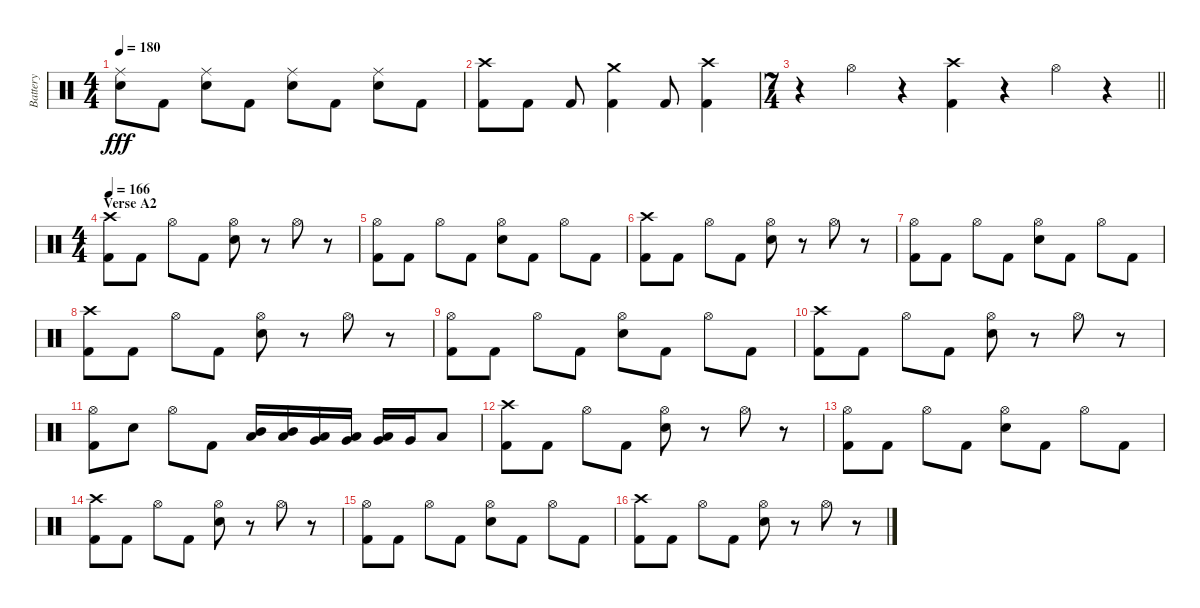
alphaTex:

\track ("Battery" "Battery") {instrument percussion}
\staff {score}
\articulation defaults
\ts (4 4)
\tempo 180
\clef neutral
\ks c
("Ride (middle)" "Electric Snare (hit)").8{dy fff} "Kick (hit) 2".8 ("Ride (middle)" "Electric Snare (hit)").8 "Kick (hit) 2".8 ("Ride (middle)" "Electric Snare (hit)").8 "Kick (hit) 2".8 ("Ride (middle)" "Electric Snare (hit)").8 "Kick (hit) 2".8 |
("Crash high (hit)" "Kick (hit) 2").8 "Kick (hit) 2".8 "Kick (hit) 2".8 ("Crash medium (hit)" "Kick (hit) 2").4 "Kick (hit) 2".8 ("Crash high (hit)" "Kick (hit) 2").4 |
\ts (7 4)
\barLineRight lightlight
r.4 "Hi-Hat (open)".4 r.4 ("Crash high (hit)" "Kick (hit) 2").4 r.4 "Hi-Hat (open)".4 r.4 |
\ts (4 4)
\section ("" "Verse A2")
\tempo 166
("Crash high (hit)" "Kick (hit) 2").8 "Kick (hit) 2".8 "Hi-Hat (open)".8 "Kick (hit) 2".8 ("Hi-Hat (open)" "Electric Snare (hit)").8 r.8 "Hi-Hat (open)".8 r.8 |
("Hi-Hat (open)" "Kick (hit) 2").8 "Kick (hit) 2".8 "Hi-Hat (open)".8 "Kick (hit) 2".8 ("Hi-Hat (open)" "Electric Snare (hit)").8 "Kick (hit) 2".8 "Hi-Hat (open)".8 "Kick (hit) 2".8 |
("Crash high (hit)" "Kick (hit) 2").8 "Kick (hit) 2".8 "Hi-Hat (open)".8 "Kick (hit) 2".8 ("Hi-Hat (open)" "Electric Snare (hit)").8 r.8 "Hi-Hat (open)".8 r.8 |
("Hi-Hat (open)" "Kick (hit) 2").8 "Kick (hit) 2".8 "Hi-Hat (open)".8 "Kick (hit) 2".8 ("Hi-Hat (open)" "Electric Snare (hit)").8 "Kick (hit) 2".8 "Hi-Hat (open)".8 "Kick (hit) 2".8 |
("Crash high (hit)" "Kick (hit) 2").8 "Kick (hit) 2".8 "Hi-Hat (open)".8 "Kick (hit) 2".8 ("Hi-Hat (open)" "Electric Snare (hit)").8 r.8 "Hi-Hat (open)".8 r.8 |
("Hi-Hat (open)" "Kick (hit) 2").8 "Kick (hit) 2".8 "Hi-Hat (open)".8 "Kick (hit) 2".8 ("Hi-Hat (open)" "Electric Snare (hit)").8 "Kick (hit) 2".8 "Hi-Hat (open)".8 "Kick (hit) 2".8 |
("Crash high (hit)" "Kick (hit) 2").8 "Kick (hit) 2".8 "Hi-Hat (open)".8 "Kick (hit) 2".8 ("Hi-Hat (open)" "Electric Snare (hit)").8 r.8 "Hi-Hat (open)".8 r.8 |
("Hi-Hat (open)" "Kick (hit) 2").8 "Electric Snare (hit)".8 "Hi-Hat (open)".8 "Kick (hit) 2".8 ("Mid Tom (hit)" "Low Tom (hit)").16 ("Mid Tom (hit)" "Low Tom (hit)").16 ("Low Tom (hit)" "Very Low Tom (hit)").16 ("Low Tom (hit)" "Very Low Tom (hit)").16 ("Very Low Tom (hit)" "Low Floor Tom (hit)").16 "Very Low Tom (hit)".16 "Low Floor Tom (hit)".8 |
("Crash high (hit)" "Kick (hit) 2").8 "Kick (hit) 2".8 "Hi-Hat (open)".8 "Kick (hit) 2".8 ("Hi-Hat (open)" "Electric Snare (hit)").8 r.8 "Hi-Hat (open)".8 r.8 |
("Hi-Hat (open)" "Kick (hit) 2").8 "Kick (hit) 2".8 "Hi-Hat (open)".8 "Kick (hit) 2".8 ("Hi-Hat (open)" "Electric Snare (hit)").8 "Kick (hit) 2".8 "Hi-Hat (open)".8 "Kick (hit) 2".8 |
("Crash high (hit)" "Kick (hit) 2").8 "Kick (hit) 2".8 "Hi-Hat (open)".8 "Kick (hit) 2".8 ("Hi-Hat (open)" "Electric Snare (hit)").8 r.8 "Hi-Hat (open)".8 r.8 |
("Hi-Hat (open)" "Kick (hit) 2").8 "Kick (hit) 2".8 "Hi-Hat (open)".8 "Kick (hit) 2".8 ("Hi-Hat (open)" "Electric Snare (hit)").8 "Kick (hit) 2".8 "Hi-Hat (open)".8 "Kick (hit) 2".8 |
("Crash high (hit)" "Kick (hit) 2").8 "Kick (hit) 2".8 "Hi-Hat (open)".8 "Kick (hit) 2".8 ("Hi-Hat (open)" "Electric Snare (hit)").8 r.8 "Hi-Hat (open)".8 r.8
